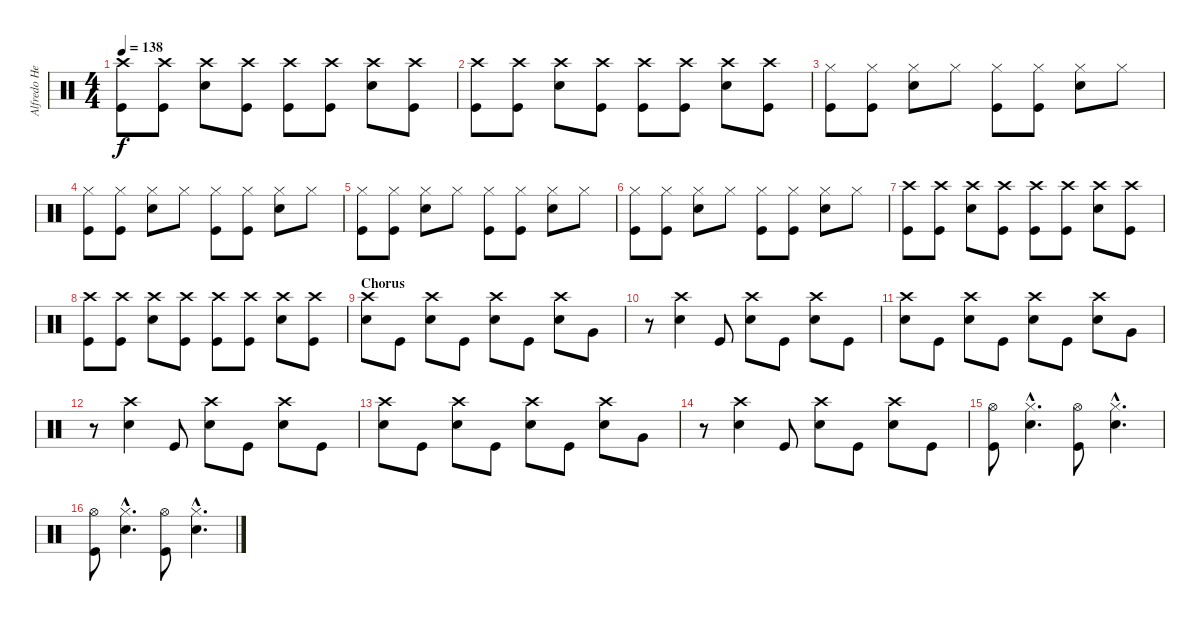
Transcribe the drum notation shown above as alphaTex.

\track ("Alfredo Hernandez" "Alfredo He") {instrument percussion}
\staff {score}
\articulation defaults
\ts (4 4)
\tempo 138
\clef neutral
\ks c
("Kick (hit)" "Crash high (hit)").8{dy f} ("Kick (hit)" "Crash high (hit)").8 ("Snare (hit) 2" "Crash high (hit)").8 ("Kick (hit)" "Crash high (hit)").8 ("Kick (hit)" "Crash high (hit)").8 ("Kick (hit)" "Crash high (hit)").8 ("Snare (hit) 2" "Crash high (hit)").8 ("Kick (hit)" "Crash high (hit)").8 |
("Kick (hit)" "Crash high (hit)").8 ("Kick (hit)" "Crash high (hit)").8 ("Snare (hit) 2" "Crash high (hit)").8 ("Kick (hit)" "Crash high (hit)").8 ("Kick (hit)" "Crash high (hit)").8 ("Kick (hit)" "Crash high (hit)").8 ("Snare (hit) 2" "Crash high (hit)").8 ("Kick (hit)" "Crash high (hit)").8 |
("Kick (hit)" "Hi-Hat (closed)").8 ("Kick (hit)" "Hi-Hat (closed)").8 ("Snare (hit) 2" "Hi-Hat (closed)").8 "Hi-Hat (closed)".8 ("Kick (hit)" "Hi-Hat (closed)").8 ("Kick (hit)" "Hi-Hat (closed)").8 ("Snare (hit) 2" "Hi-Hat (closed)").8 "Hi-Hat (closed)".8 |
("Kick (hit)" "Hi-Hat (closed)").8 ("Kick (hit)" "Hi-Hat (closed)").8 ("Snare (hit) 2" "Hi-Hat (closed)").8 "Hi-Hat (closed)".8 ("Kick (hit)" "Hi-Hat (closed)").8 ("Kick (hit)" "Hi-Hat (closed)").8 ("Snare (hit) 2" "Hi-Hat (closed)").8 "Hi-Hat (closed)".8 |
("Kick (hit)" "Hi-Hat (closed)").8 ("Kick (hit)" "Hi-Hat (closed)").8 ("Snare (hit) 2" "Hi-Hat (closed)").8 "Hi-Hat (closed)".8 ("Kick (hit)" "Hi-Hat (closed)").8 ("Kick (hit)" "Hi-Hat (closed)").8 ("Snare (hit) 2" "Hi-Hat (closed)").8 "Hi-Hat (closed)".8 |
("Kick (hit)" "Hi-Hat (closed)").8 ("Kick (hit)" "Hi-Hat (closed)").8 ("Snare (hit) 2" "Hi-Hat (closed)").8 "Hi-Hat (closed)".8 ("Kick (hit)" "Hi-Hat (closed)").8 ("Kick (hit)" "Hi-Hat (closed)").8 ("Snare (hit) 2" "Hi-Hat (closed)").8 "Hi-Hat (closed)".8 |
("Kick (hit)" "Crash high (hit)").8 ("Kick (hit)" "Crash high (hit)").8 ("Snare (hit) 2" "Crash high (hit)").8 ("Kick (hit)" "Crash high (hit)").8 ("Kick (hit)" "Crash high (hit)").8 ("Kick (hit)" "Crash high (hit)").8 ("Snare (hit) 2" "Crash high (hit)").8 ("Kick (hit)" "Crash high (hit)").8 |
("Kick (hit)" "Crash high (hit)").8 ("Kick (hit)" "Crash high (hit)").8 ("Snare (hit) 2" "Crash high (hit)").8 ("Kick (hit)" "Crash high (hit)").8 ("Kick (hit)" "Crash high (hit)").8 ("Kick (hit)" "Crash high (hit)").8 ("Snare (hit) 2" "Crash high (hit)").8 ("Kick (hit)" "Crash high (hit)").8 |
\section ("" "Chorus")
("Snare (hit) 2" "Crash high (hit)").8 "Kick (hit)".8 ("Snare (hit) 2" "Crash high (hit)").8 "Kick (hit)".8 ("Snare (hit) 2" "Crash high (hit)").8 "Kick (hit)".8 ("Snare (hit) 2" "Crash high (hit)").8 "Very Low Tom (hit)".8 |
r.8 ("Snare (hit) 2" "Crash high (hit)").4 "Kick (hit)".8 ("Snare (hit) 2" "Crash high (hit)").8 "Kick (hit)".8 ("Snare (hit) 2" "Crash high (hit)").8 "Kick (hit)".8 |
("Snare (hit) 2" "Crash high (hit)").8 "Kick (hit)".8 ("Snare (hit) 2" "Crash high (hit)").8 "Kick (hit)".8 ("Snare (hit) 2" "Crash high (hit)").8 "Kick (hit)".8 ("Snare (hit) 2" "Crash high (hit)").8 "Very Low Tom (hit)".8 |
r.8 ("Snare (hit) 2" "Crash high (hit)").4 "Kick (hit)".8 ("Snare (hit) 2" "Crash high (hit)").8 "Kick (hit)".8 ("Snare (hit) 2" "Crash high (hit)").8 "Kick (hit)".8 |
("Snare (hit) 2" "Crash high (hit)").8 "Kick (hit)".8 ("Snare (hit) 2" "Crash high (hit)").8 "Kick (hit)".8 ("Snare (hit) 2" "Crash high (hit)").8 "Kick (hit)".8 ("Snare (hit) 2" "Crash high (hit)").8 "Very Low Tom (hit)".8 |
r.8 ("Snare (hit) 2" "Crash high (hit)").4 "Kick (hit)".8 ("Snare (hit) 2" "Crash high (hit)").8 "Kick (hit)".8 ("Snare (hit) 2" "Crash high (hit)").8 "Kick (hit)".8 |
("Kick (hit)" "Hi-Hat (open)").8 ("Snare (hit) 2"{hac} "Hi-Hat (closed)"{hac}).4{d} ("Kick (hit)" "Hi-Hat (open)").8 ("Snare (hit) 2"{hac} "Hi-Hat (closed)"{hac}).4{d} |
("Kick (hit)" "Hi-Hat (open)").8 ("Snare (hit) 2"{hac} "Hi-Hat (closed)"{hac}).4{d} ("Kick (hit)" "Hi-Hat (open)").8 ("Snare (hit) 2"{hac} "Hi-Hat (closed)"{hac}).4{d}
